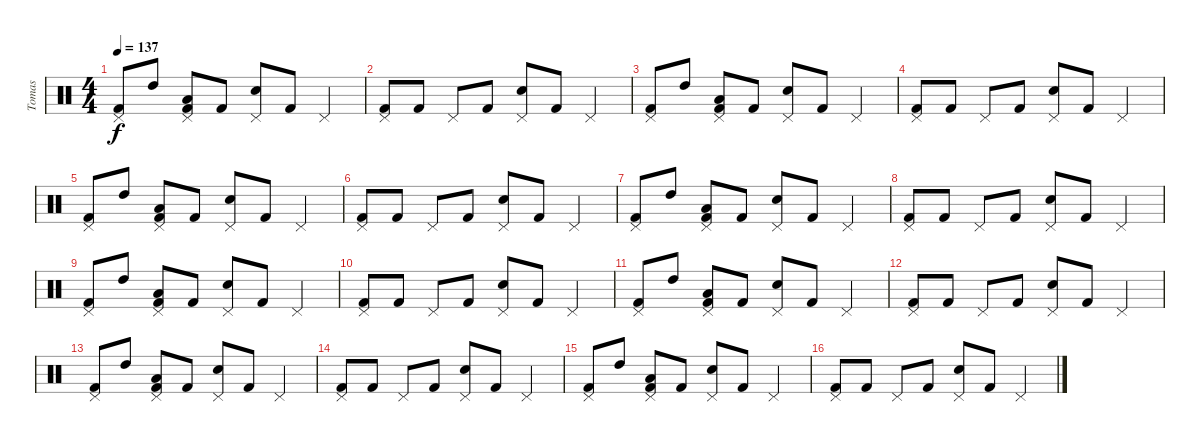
\track ("Tomas" "Tomas") {instrument percussion}
\staff {score}
\articulation defaults
\ts (4 4)
\tempo 137
\clef neutral
\ks c
("Pedal Hi-Hat (hit)" "Kick (hit) 2").8{dy f} "High Tom (hit)".8 ("Pedal Hi-Hat (hit)" "Low Tom (hit)" "Kick (hit) 2").8 "Kick (hit) 2".8 ("Pedal Hi-Hat (hit)" "Electric Snare (hit)").8 "Kick (hit) 2".8 "Pedal Hi-Hat (hit)".4 |
("Pedal Hi-Hat (hit)" "Kick (hit) 2").8 "Kick (hit) 2".8 "Pedal Hi-Hat (hit)".8 "Kick (hit) 2".8 ("Pedal Hi-Hat (hit)" "Electric Snare (hit)").8 "Kick (hit) 2".8 "Pedal Hi-Hat (hit)".4 |
("Pedal Hi-Hat (hit)" "Kick (hit) 2").8 "High Tom (hit)".8 ("Pedal Hi-Hat (hit)" "Low Tom (hit)" "Kick (hit) 2").8 "Kick (hit) 2".8 ("Pedal Hi-Hat (hit)" "Electric Snare (hit)").8 "Kick (hit) 2".8 "Pedal Hi-Hat (hit)".4 |
("Pedal Hi-Hat (hit)" "Kick (hit) 2").8 "Kick (hit) 2".8 "Pedal Hi-Hat (hit)".8 "Kick (hit) 2".8 ("Pedal Hi-Hat (hit)" "Electric Snare (hit)").8 "Kick (hit) 2".8 "Pedal Hi-Hat (hit)".4 |
("Pedal Hi-Hat (hit)" "Kick (hit) 2").8 "High Tom (hit)".8 ("Pedal Hi-Hat (hit)" "Low Tom (hit)" "Kick (hit) 2").8 "Kick (hit) 2".8 ("Pedal Hi-Hat (hit)" "Electric Snare (hit)").8 "Kick (hit) 2".8 "Pedal Hi-Hat (hit)".4 |
("Pedal Hi-Hat (hit)" "Kick (hit) 2").8 "Kick (hit) 2".8 "Pedal Hi-Hat (hit)".8 "Kick (hit) 2".8 ("Pedal Hi-Hat (hit)" "Electric Snare (hit)").8 "Kick (hit) 2".8 "Pedal Hi-Hat (hit)".4 |
("Pedal Hi-Hat (hit)" "Kick (hit) 2").8 "High Tom (hit)".8 ("Pedal Hi-Hat (hit)" "Low Tom (hit)" "Kick (hit) 2").8 "Kick (hit) 2".8 ("Pedal Hi-Hat (hit)" "Electric Snare (hit)").8 "Kick (hit) 2".8 "Pedal Hi-Hat (hit)".4 |
("Pedal Hi-Hat (hit)" "Kick (hit) 2").8 "Kick (hit) 2".8 "Pedal Hi-Hat (hit)".8 "Kick (hit) 2".8 ("Pedal Hi-Hat (hit)" "Electric Snare (hit)").8 "Kick (hit) 2".8 "Pedal Hi-Hat (hit)".4 |
("Pedal Hi-Hat (hit)" "Kick (hit) 2").8 "High Tom (hit)".8 ("Pedal Hi-Hat (hit)" "Low Tom (hit)" "Kick (hit) 2").8 "Kick (hit) 2".8 ("Pedal Hi-Hat (hit)" "Electric Snare (hit)").8 "Kick (hit) 2".8 "Pedal Hi-Hat (hit)".4 |
("Pedal Hi-Hat (hit)" "Kick (hit) 2").8 "Kick (hit) 2".8 "Pedal Hi-Hat (hit)".8 "Kick (hit) 2".8 ("Pedal Hi-Hat (hit)" "Electric Snare (hit)").8 "Kick (hit) 2".8 "Pedal Hi-Hat (hit)".4 |
("Pedal Hi-Hat (hit)" "Kick (hit) 2").8 "High Tom (hit)".8 ("Pedal Hi-Hat (hit)" "Low Tom (hit)" "Kick (hit) 2").8 "Kick (hit) 2".8 ("Pedal Hi-Hat (hit)" "Electric Snare (hit)").8 "Kick (hit) 2".8 "Pedal Hi-Hat (hit)".4 |
("Pedal Hi-Hat (hit)" "Kick (hit) 2").8 "Kick (hit) 2".8 "Pedal Hi-Hat (hit)".8 "Kick (hit) 2".8 ("Pedal Hi-Hat (hit)" "Electric Snare (hit)").8 "Kick (hit) 2".8 "Pedal Hi-Hat (hit)".4 |
("Pedal Hi-Hat (hit)" "Kick (hit) 2").8 "High Tom (hit)".8 ("Pedal Hi-Hat (hit)" "Low Tom (hit)" "Kick (hit) 2").8 "Kick (hit) 2".8 ("Pedal Hi-Hat (hit)" "Electric Snare (hit)").8 "Kick (hit) 2".8 "Pedal Hi-Hat (hit)".4 |
("Pedal Hi-Hat (hit)" "Kick (hit) 2").8 "Kick (hit) 2".8 "Pedal Hi-Hat (hit)".8 "Kick (hit) 2".8 ("Pedal Hi-Hat (hit)" "Electric Snare (hit)").8 "Kick (hit) 2".8 "Pedal Hi-Hat (hit)".4 |
("Pedal Hi-Hat (hit)" "Kick (hit) 2").8 "High Tom (hit)".8 ("Pedal Hi-Hat (hit)" "Low Tom (hit)" "Kick (hit) 2").8 "Kick (hit) 2".8 ("Pedal Hi-Hat (hit)" "Electric Snare (hit)").8 "Kick (hit) 2".8 "Pedal Hi-Hat (hit)".4 |
("Pedal Hi-Hat (hit)" "Kick (hit) 2").8 "Kick (hit) 2".8 "Pedal Hi-Hat (hit)".8 "Kick (hit) 2".8 ("Pedal Hi-Hat (hit)" "Electric Snare (hit)").8 "Kick (hit) 2".8 "Pedal Hi-Hat (hit)".4
